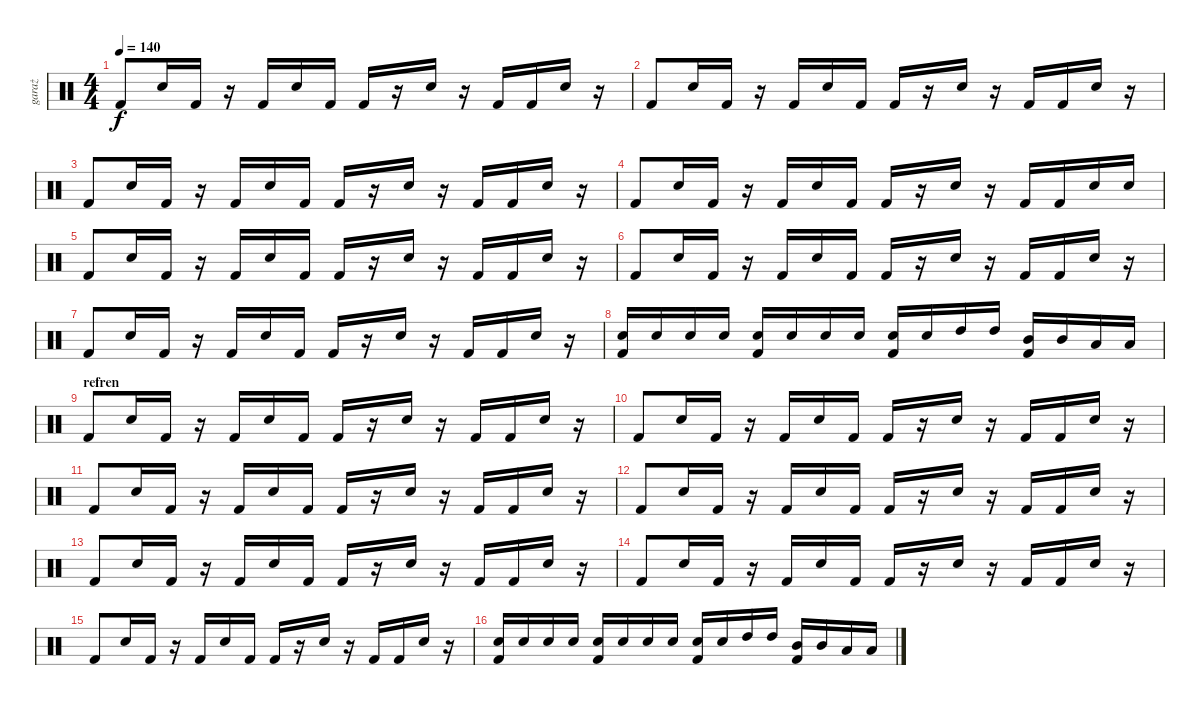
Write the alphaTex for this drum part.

\track ("garaż" "garaż") {instrument percussion}
\staff {score}
\articulation defaults
\ts (4 4)
\tempo 140
\clef neutral
\ks c "Kick (hit) 2".8{dy f} "Snare (hit) 2".16 "Kick (hit) 2".16
r.16 "Kick (hit) 2".16 "Snare (hit) 2".16 "Kick (hit) 2".16 "Kick (hit) 2".16 r.16 "Snare (hit) 2".16 r.16 "Kick (hit) 2".16 "Kick (hit) 2".16 "Snare (hit) 2".16 r.16 |
"Kick (hit) 2".8 "Snare (hit) 2".16 "Kick (hit) 2".16 r.16 "Kick (hit) 2".16 "Snare (hit) 2".16 "Kick (hit) 2".16 "Kick (hit) 2".16 r.16 "Snare (hit) 2".16 r.16 "Kick (hit) 2".16 "Kick (hit) 2".16 "Snare (hit) 2".16 r.16 |
"Kick (hit) 2".8 "Snare (hit) 2".16 "Kick (hit) 2".16 r.16 "Kick (hit) 2".16 "Snare (hit) 2".16 "Kick (hit) 2".16 "Kick (hit) 2".16 r.16 "Snare (hit) 2".16 r.16 "Kick (hit) 2".16 "Kick (hit) 2".16 "Snare (hit) 2".16 r.16 |
"Kick (hit) 2".8 "Snare (hit) 2".16 "Kick (hit) 2".16 r.16 "Kick (hit) 2".16 "Snare (hit) 2".16 "Kick (hit) 2".16 "Kick (hit) 2".16 r.16 "Snare (hit) 2".16 r.16 "Kick (hit) 2".16 "Kick (hit) 2".16 "Snare (hit) 2".16 "Snare (hit) 2".16 |
"Kick (hit) 2".8 "Snare (hit) 2".16 "Kick (hit) 2".16 r.16 "Kick (hit) 2".16 "Snare (hit) 2".16 "Kick (hit) 2".16 "Kick (hit) 2".16 r.16 "Snare (hit) 2".16 r.16 "Kick (hit) 2".16 "Kick (hit) 2".16 "Snare (hit) 2".16 r.16 |
"Kick (hit) 2".8 "Snare (hit) 2".16 "Kick (hit) 2".16 r.16 "Kick (hit) 2".16 "Snare (hit) 2".16 "Kick (hit) 2".16 "Kick (hit) 2".16 r.16 "Snare (hit) 2".16 r.16 "Kick (hit) 2".16 "Kick (hit) 2".16 "Snare (hit) 2".16 r.16 |
"Kick (hit) 2".8 "Snare (hit) 2".16 "Kick (hit) 2".16 r.16 "Kick (hit) 2".16 "Snare (hit) 2".16 "Kick (hit) 2".16 "Kick (hit) 2".16 r.16 "Snare (hit) 2".16 r.16 "Kick (hit) 2".16 "Kick (hit) 2".16 "Snare (hit) 2".16 r.16 |
("Snare (hit) 2" "Kick (hit) 2").16 "Snare (hit) 2".16 "Snare (hit) 2".16 "Snare (hit) 2".16 ("Snare (hit) 2" "Kick (hit) 2").16 "Snare (hit) 2".16 "Snare (hit) 2".16 "Snare (hit) 2".16 ("Snare (hit) 2" "Kick (hit) 2").16 "Snare (hit) 2".16 "High Tom (hit)".16 "High Tom (hit)".16 ("Mid Tom (hit)" "Kick (hit) 2").16 "Mid Tom (hit)".16 "Low Tom (hit)".16 "Low Tom (hit)".16 |
\section ("" "refren")
"Kick (hit) 2".8 "Snare (hit) 2".16 "Kick (hit) 2".16 r.16 "Kick (hit) 2".16 "Snare (hit) 2".16 "Kick (hit) 2".16 "Kick (hit) 2".16 r.16 "Snare (hit) 2".16 r.16 "Kick (hit) 2".16 "Kick (hit) 2".16 "Snare (hit) 2".16 r.16 |
"Kick (hit) 2".8 "Snare (hit) 2".16 "Kick (hit) 2".16 r.16 "Kick (hit) 2".16 "Snare (hit) 2".16 "Kick (hit) 2".16 "Kick (hit) 2".16 r.16 "Snare (hit) 2".16 r.16 "Kick (hit) 2".16 "Kick (hit) 2".16 "Snare (hit) 2".16 r.16 |
"Kick (hit) 2".8 "Snare (hit) 2".16 "Kick (hit) 2".16 r.16 "Kick (hit) 2".16 "Snare (hit) 2".16 "Kick (hit) 2".16 "Kick (hit) 2".16 r.16 "Snare (hit) 2".16 r.16 "Kick (hit) 2".16 "Kick (hit) 2".16 "Snare (hit) 2".16 r.16 |
"Kick (hit) 2".8 "Snare (hit) 2".16 "Kick (hit) 2".16 r.16 "Kick (hit) 2".16 "Snare (hit) 2".16 "Kick (hit) 2".16 "Kick (hit) 2".16 r.16 "Snare (hit) 2".16 r.16 "Kick (hit) 2".16 "Kick (hit) 2".16 "Snare (hit) 2".16 r.16 |
"Kick (hit) 2".8 "Snare (hit) 2".16 "Kick (hit) 2".16 r.16 "Kick (hit) 2".16 "Snare (hit) 2".16 "Kick (hit) 2".16 "Kick (hit) 2".16 r.16 "Snare (hit) 2".16 r.16 "Kick (hit) 2".16 "Kick (hit) 2".16 "Snare (hit) 2".16 r.16 |
"Kick (hit) 2".8 "Snare (hit) 2".16 "Kick (hit) 2".16 r.16 "Kick (hit) 2".16 "Snare (hit) 2".16 "Kick (hit) 2".16 "Kick (hit) 2".16 r.16 "Snare (hit) 2".16 r.16 "Kick (hit) 2".16 "Kick (hit) 2".16 "Snare (hit) 2".16 r.16 |
"Kick (hit) 2".8 "Snare (hit) 2".16 "Kick (hit) 2".16 r.16 "Kick (hit) 2".16 "Snare (hit) 2".16 "Kick (hit) 2".16 "Kick (hit) 2".16 r.16 "Snare (hit) 2".16 r.16 "Kick (hit) 2".16 "Kick (hit) 2".16 "Snare (hit) 2".16 r.16 |
("Snare (hit) 2" "Kick (hit) 2").16 "Snare (hit) 2".16 "Snare (hit) 2".16 "Snare (hit) 2".16 ("Snare (hit) 2" "Kick (hit) 2").16 "Snare (hit) 2".16 "Snare (hit) 2".16 "Snare (hit) 2".16 ("Snare (hit) 2" "Kick (hit) 2").16 "Snare (hit) 2".16 "High Tom (hit)".16 "High Tom (hit)".16 ("Mid Tom (hit)" "Kick (hit) 2").16 "Mid Tom (hit)".16 "Low Tom (hit)".16 "Low Tom (hit)".16
